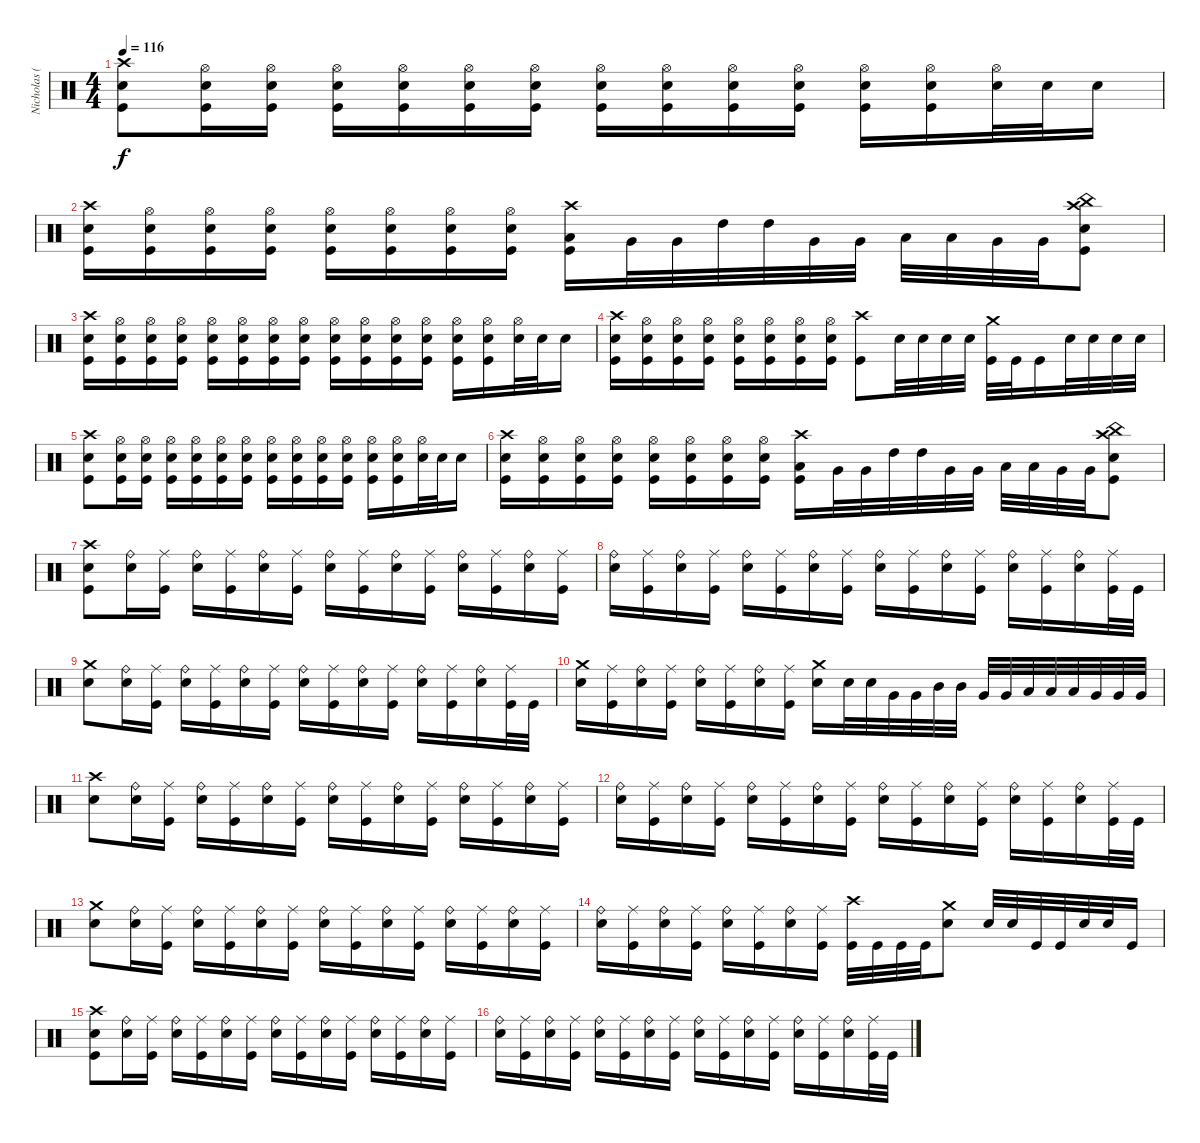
\track ("Nicholas (Drums)" "Nicholas (") {instrument percussion}
\staff {score}
\articulation defaults
\ts (4 4)
\tempo 116
\clef neutral
\ks c
("Crash high (hit)" "Electric Snare (hit)" "Kick (hit)").8{dy f} ("Hi-Hat (open)" "Electric Snare (hit)" "Kick (hit)").16 ("Hi-Hat (open)" "Electric Snare (hit)" "Kick (hit)").16 ("Hi-Hat (open)" "Electric Snare (hit)" "Kick (hit)").16 ("Hi-Hat (open)" "Electric Snare (hit)" "Kick (hit)").16 ("Hi-Hat (open)" "Electric Snare (hit)" "Kick (hit)").16 ("Hi-Hat (open)" "Electric Snare (hit)" "Kick (hit)").16 ("Hi-Hat (open)" "Electric Snare (hit)" "Kick (hit)").16 ("Hi-Hat (open)" "Electric Snare (hit)" "Kick (hit)").16 ("Hi-Hat (open)" "Electric Snare (hit)" "Kick (hit)").16 ("Hi-Hat (open)" "Electric Snare (hit)" "Kick (hit)").16 ("Hi-Hat (open)" "Electric Snare (hit)" "Kick (hit)").16 ("Hi-Hat (open)" "Electric Snare (hit)" "Kick (hit)").16 ("Hi-Hat (open)" "Electric Snare (hit)").32 "Electric Snare (hit)".32 "Electric Snare (hit)".16 |
("Crash high (hit)" "Electric Snare (hit)" "Kick (hit)").16 ("Hi-Hat (open)" "Electric Snare (hit)" "Kick (hit)").16 ("Hi-Hat (open)" "Electric Snare (hit)" "Kick (hit)").16 ("Hi-Hat (open)" "Electric Snare (hit)" "Kick (hit)").16 ("Hi-Hat (open)" "Electric Snare (hit)" "Kick (hit)").16 ("Hi-Hat (open)" "Electric Snare (hit)" "Kick (hit)").16 ("Hi-Hat (open)" "Electric Snare (hit)" "Kick (hit)").16 ("Hi-Hat (open)" "Electric Snare (hit)" "Kick (hit)").16 ("Crash high (hit)" "Low Tom (hit)" "Kick (hit)").16 "Very Low Tom (hit)".32 "Very Low Tom (hit)".32 "High Tom (hit)".32 "High Tom (hit)".32 "Very Low Tom (hit)".32 "Very Low Tom (hit)".32 "Low Tom (hit)".32 "Low Tom (hit)".32 "Very Low Tom (hit)".32 "Very Low Tom (hit)".32 ("Crash high (hit)" "China (hit)" "Electric Snare (hit)" "Kick (hit)").8 |
("Crash high (hit)" "Electric Snare (hit)" "Kick (hit)").16 ("Hi-Hat (open)" "Electric Snare (hit)" "Kick (hit)").16 ("Hi-Hat (open)" "Electric Snare (hit)" "Kick (hit)").16 ("Hi-Hat (open)" "Electric Snare (hit)" "Kick (hit)").16 ("Hi-Hat (open)" "Electric Snare (hit)" "Kick (hit)").16 ("Hi-Hat (open)" "Electric Snare (hit)" "Kick (hit)").16 ("Hi-Hat (open)" "Electric Snare (hit)" "Kick (hit)").16 ("Hi-Hat (open)" "Electric Snare (hit)" "Kick (hit)").16 ("Hi-Hat (open)" "Electric Snare (hit)" "Kick (hit)").16 ("Hi-Hat (open)" "Electric Snare (hit)" "Kick (hit)").16 ("Hi-Hat (open)" "Electric Snare (hit)" "Kick (hit)").16 ("Hi-Hat (open)" "Electric Snare (hit)" "Kick (hit)").16 ("Hi-Hat (open)" "Electric Snare (hit)" "Kick (hit)").16 ("Hi-Hat (open)" "Electric Snare (hit)" "Kick (hit)").16 ("Hi-Hat (open)" "Electric Snare (hit)").32 "Electric Snare (hit)".32 "Electric Snare (hit)".16 |
("Crash high (hit)" "Electric Snare (hit)" "Kick (hit)").16 ("Hi-Hat (open)" "Electric Snare (hit)" "Kick (hit)").16 ("Hi-Hat (open)" "Electric Snare (hit)" "Kick (hit)").16 ("Hi-Hat (open)" "Electric Snare (hit)" "Kick (hit)").16 ("Hi-Hat (open)" "Electric Snare (hit)" "Kick (hit)").16 ("Hi-Hat (open)" "Electric Snare (hit)" "Kick (hit)").16 ("Hi-Hat (open)" "Electric Snare (hit)" "Kick (hit)").16 ("Hi-Hat (open)" "Electric Snare (hit)" "Kick (hit)").16 ("Crash high (hit)" "Kick (hit)").8 "Electric Snare (hit)".32 "Electric Snare (hit)".32 "Electric Snare (hit)".32 "Electric Snare (hit)".32 ("Crash medium (hit)" "Kick (hit)").32 "Kick (hit)".32 "Kick (hit)".16 "Electric Snare (hit)".32 "Electric Snare (hit)".32 "Electric Snare (hit)".32 "Electric Snare (hit)".32 |
("Crash high (hit)" "Electric Snare (hit)" "Kick (hit)").8 ("Hi-Hat (open)" "Electric Snare (hit)" "Kick (hit)").16 ("Hi-Hat (open)" "Electric Snare (hit)" "Kick (hit)").16 ("Hi-Hat (open)" "Electric Snare (hit)" "Kick (hit)").16 ("Hi-Hat (open)" "Electric Snare (hit)" "Kick (hit)").16 ("Hi-Hat (open)" "Electric Snare (hit)" "Kick (hit)").16 ("Hi-Hat (open)" "Electric Snare (hit)" "Kick (hit)").16 ("Hi-Hat (open)" "Electric Snare (hit)" "Kick (hit)").16 ("Hi-Hat (open)" "Electric Snare (hit)" "Kick (hit)").16 ("Hi-Hat (open)" "Electric Snare (hit)" "Kick (hit)").16 ("Hi-Hat (open)" "Electric Snare (hit)" "Kick (hit)").16 ("Hi-Hat (open)" "Electric Snare (hit)" "Kick (hit)").16 ("Hi-Hat (open)" "Electric Snare (hit)" "Kick (hit)").16 ("Hi-Hat (open)" "Electric Snare (hit)").32 "Electric Snare (hit)".32 "Electric Snare (hit)".16 |
("Crash high (hit)" "Electric Snare (hit)" "Kick (hit)").16 ("Hi-Hat (open)" "Electric Snare (hit)" "Kick (hit)").16 ("Hi-Hat (open)" "Electric Snare (hit)" "Kick (hit)").16 ("Hi-Hat (open)" "Electric Snare (hit)" "Kick (hit)").16 ("Hi-Hat (open)" "Electric Snare (hit)" "Kick (hit)").16 ("Hi-Hat (open)" "Electric Snare (hit)" "Kick (hit)").16 ("Hi-Hat (open)" "Electric Snare (hit)" "Kick (hit)").16 ("Hi-Hat (open)" "Electric Snare (hit)" "Kick (hit)").16 ("Crash high (hit)" "Low Tom (hit)" "Kick (hit)").16 "Very Low Tom (hit)".32 "Very Low Tom (hit)".32 "High Tom (hit)".32 "High Tom (hit)".32 "Very Low Tom (hit)".32 "Very Low Tom (hit)".32 "Low Tom (hit)".32 "Low Tom (hit)".32 "Very Low Tom (hit)".32 "Very Low Tom (hit)".32 ("Crash high (hit)" "China (hit)" "Electric Snare (hit)" "Kick (hit)").8 |
("Crash high (hit)" "Electric Snare (hit)" "Kick (hit)").8 ("Ride (bell)" "Electric Snare (hit)").16 ("Ride (middle)" "Kick (hit)").16 ("Ride (bell)" "Electric Snare (hit)").16 ("Ride (middle)" "Kick (hit)").16 ("Ride (bell)" "Electric Snare (hit)").16 ("Ride (middle)" "Kick (hit)").16 ("Ride (bell)" "Electric Snare (hit)").16 ("Ride (middle)" "Kick (hit)").16 ("Ride (bell)" "Electric Snare (hit)").16 ("Ride (middle)" "Kick (hit)").16 ("Ride (bell)" "Electric Snare (hit)").16 ("Ride (middle)" "Kick (hit)").16 ("Ride (bell)" "Electric Snare (hit)").16 ("Ride (middle)" "Kick (hit)").16 |
("Ride (bell)" "Electric Snare (hit)").16 ("Ride (middle)" "Kick (hit)").16 ("Ride (bell)" "Electric Snare (hit)").16 ("Ride (middle)" "Kick (hit)").16 ("Ride (bell)" "Electric Snare (hit)").16 ("Ride (middle)" "Kick (hit)").16 ("Ride (bell)" "Electric Snare (hit)").16 ("Ride (middle)" "Kick (hit)").16 ("Ride (bell)" "Electric Snare (hit)").16 ("Ride (middle)" "Kick (hit)").16 ("Ride (bell)" "Electric Snare (hit)").16 ("Ride (middle)" "Kick (hit)").16 ("Ride (bell)" "Electric Snare (hit)").16 ("Ride (middle)" "Kick (hit)").16 ("Ride (bell)" "Electric Snare (hit)").16 ("Ride (middle)" "Kick (hit)").32 "Kick (hit)".32 |
("Crash medium (hit)" "Electric Snare (hit)").8 ("Ride (bell)" "Electric Snare (hit)").16 ("Ride (middle)" "Kick (hit)").16 ("Ride (bell)" "Electric Snare (hit)").16 ("Ride (middle)" "Kick (hit)").16 ("Ride (bell)" "Electric Snare (hit)").16 ("Ride (middle)" "Kick (hit)").16 ("Ride (bell)" "Electric Snare (hit)").16 ("Ride (middle)" "Kick (hit)").16 ("Ride (bell)" "Electric Snare (hit)").16 ("Ride (middle)" "Kick (hit)").16 ("Ride (bell)" "Electric Snare (hit)").16 ("Ride (middle)" "Kick (hit)").16 ("Ride (bell)" "Electric Snare (hit)").16 ("Ride (middle)" "Kick (hit)").32 "Kick (hit)".32 |
("Crash medium (hit)" "Electric Snare (hit)").16 ("Ride (middle)" "Kick (hit)").16 ("Ride (bell)" "Electric Snare (hit)").16 ("Ride (middle)" "Kick (hit)").16 ("Ride (bell)" "Electric Snare (hit)").16 ("Ride (middle)" "Kick (hit)").16 ("Ride (bell)" "Electric Snare (hit)").16 ("Ride (middle)" "Kick (hit)").16 ("Crash medium (hit)" "Electric Snare (hit)").16 "Electric Snare (hit)".32 "Electric Snare (hit)".32 "Very Low Tom (hit)".32 "Very Low Tom (hit)".32 "Mid Tom (hit)".32 "Mid Tom (hit)".32 "Very Low Tom (hit)".32 "Very Low Tom (hit)".32 "Low Tom (hit)".32 "Low Tom (hit)".32 "Low Tom (hit)".32 "Very Low Tom (hit)".32 "Very Low Tom (hit)".32 "Very Low Tom (hit)".32 |
("Crash high (hit)" "Electric Snare (hit)").8 ("Ride (bell)" "Electric Snare (hit)").16 ("Ride (middle)" "Kick (hit)").16 ("Ride (bell)" "Electric Snare (hit)").16 ("Ride (middle)" "Kick (hit)").16 ("Ride (bell)" "Electric Snare (hit)").16 ("Ride (middle)" "Kick (hit)").16 ("Ride (bell)" "Electric Snare (hit)").16 ("Ride (middle)" "Kick (hit)").16 ("Ride (bell)" "Electric Snare (hit)").16 ("Ride (middle)" "Kick (hit)").16 ("Ride (bell)" "Electric Snare (hit)").16 ("Ride (middle)" "Kick (hit)").16 ("Ride (bell)" "Electric Snare (hit)").16 ("Ride (middle)" "Kick (hit)").16 |
("Ride (bell)" "Electric Snare (hit)").16 ("Ride (middle)" "Kick (hit)").16 ("Ride (bell)" "Electric Snare (hit)").16 ("Ride (middle)" "Kick (hit)").16 ("Ride (bell)" "Electric Snare (hit)").16 ("Ride (middle)" "Kick (hit)").16 ("Ride (bell)" "Electric Snare (hit)").16 ("Ride (middle)" "Kick (hit)").16 ("Ride (bell)" "Electric Snare (hit)").16 ("Ride (middle)" "Kick (hit)").16 ("Ride (bell)" "Electric Snare (hit)").16 ("Ride (middle)" "Kick (hit)").16 ("Ride (bell)" "Electric Snare (hit)").16 ("Ride (middle)" "Kick (hit)").16 ("Ride (bell)" "Electric Snare (hit)").16 ("Ride (middle)" "Kick (hit)").32 "Kick (hit)".32 |
("Crash medium (hit)" "Electric Snare (hit)").8 ("Ride (bell)" "Electric Snare (hit)").16 ("Ride (middle)" "Kick (hit)").16 ("Ride (bell)" "Electric Snare (hit)").16 ("Ride (middle)" "Kick (hit)").16 ("Ride (bell)" "Electric Snare (hit)").16 ("Ride (middle)" "Kick (hit)").16 ("Ride (bell)" "Electric Snare (hit)").16 ("Ride (middle)" "Kick (hit)").16 ("Ride (bell)" "Electric Snare (hit)").16 ("Ride (middle)" "Kick (hit)").16 ("Ride (bell)" "Electric Snare (hit)").16 ("Ride (middle)" "Kick (hit)").16 ("Ride (bell)" "Electric Snare (hit)").16 ("Ride (middle)" "Kick (hit)").16 |
("Ride (bell)" "Electric Snare (hit)").16 ("Ride (middle)" "Kick (hit)").16 ("Ride (bell)" "Electric Snare (hit)").16 ("Ride (middle)" "Kick (hit)").16 ("Ride (bell)" "Electric Snare (hit)").16 ("Ride (middle)" "Kick (hit)").16 ("Ride (bell)" "Electric Snare (hit)").16 ("Ride (middle)" "Kick (hit)").16 ("Crash high (hit)" "Kick (hit)").32 "Kick (hit)".32 "Kick (hit)".32 "Kick (hit)".32 ("Crash medium (hit)" "Electric Snare (hit)").8 "Electric Snare (hit)".32 "Electric Snare (hit)".32 "Kick (hit)".32 "Kick (hit)".32 "Electric Snare (hit)".32 "Electric Snare (hit)".32 "Kick (hit)".16 |
("Crash high (hit)" "Electric Snare (hit)" "Kick (hit)").8 ("Ride (bell)" "Electric Snare (hit)").16 ("Ride (middle)" "Kick (hit)").16 ("Ride (bell)" "Electric Snare (hit)").16 ("Ride (middle)" "Kick (hit)").16 ("Ride (bell)" "Electric Snare (hit)").16 ("Ride (middle)" "Kick (hit)").16 ("Ride (bell)" "Electric Snare (hit)").16 ("Ride (middle)" "Kick (hit)").16 ("Ride (bell)" "Electric Snare (hit)").16 ("Ride (middle)" "Kick (hit)").16 ("Ride (bell)" "Electric Snare (hit)").16 ("Ride (middle)" "Kick (hit)").16 ("Ride (bell)" "Electric Snare (hit)").16 ("Ride (middle)" "Kick (hit)").16 |
("Ride (bell)" "Electric Snare (hit)").16 ("Ride (middle)" "Kick (hit)").16 ("Ride (bell)" "Electric Snare (hit)").16 ("Ride (middle)" "Kick (hit)").16 ("Ride (bell)" "Electric Snare (hit)").16 ("Ride (middle)" "Kick (hit)").16 ("Ride (bell)" "Electric Snare (hit)").16 ("Ride (middle)" "Kick (hit)").16 ("Ride (bell)" "Electric Snare (hit)").16 ("Ride (middle)" "Kick (hit)").16 ("Ride (bell)" "Electric Snare (hit)").16 ("Ride (middle)" "Kick (hit)").16 ("Ride (bell)" "Electric Snare (hit)").16 ("Ride (middle)" "Kick (hit)").16 ("Ride (bell)" "Electric Snare (hit)").16 ("Ride (middle)" "Kick (hit)").32 "Kick (hit)".32
